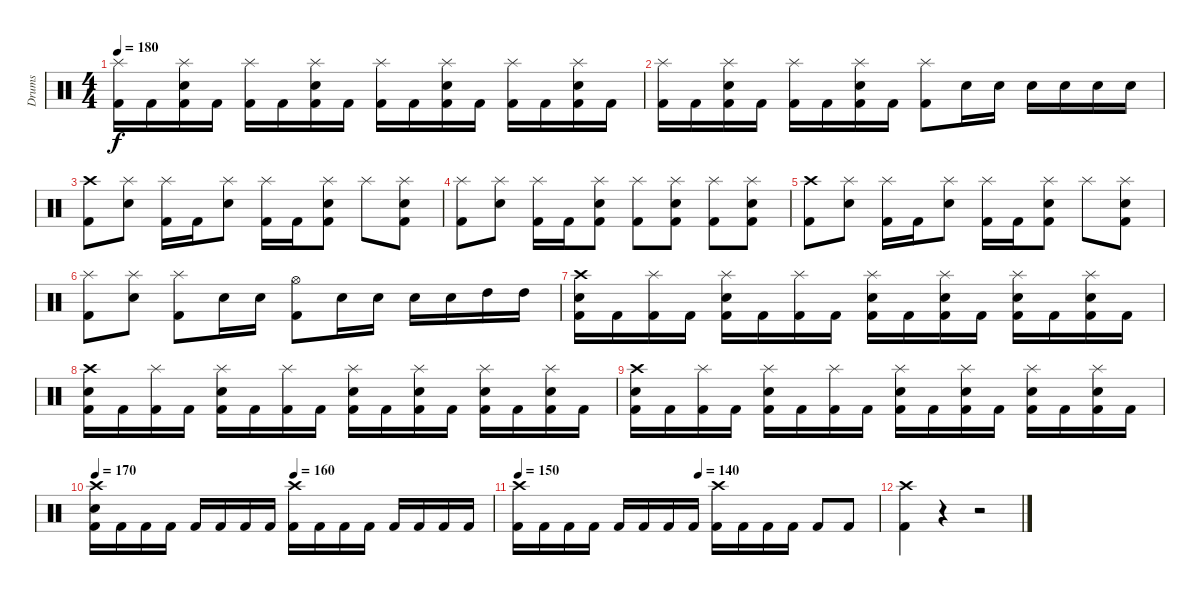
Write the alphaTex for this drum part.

\track ("Drums" "Drums") {instrument percussion}
\staff {score}
\articulation defaults
\ts (4 4)
\tempo 180
\clef neutral
\ks c
("Splash (hit)" "Kick (hit) 2").16{dy f} "Kick (hit) 2".16 ("Splash (hit)" "Snare (hit) 2" "Kick (hit) 2").16 "Kick (hit) 2".16 ("Splash (hit)" "Kick (hit) 2").16 "Kick (hit) 2".16 ("Splash (hit)" "Snare (hit) 2" "Kick (hit) 2").16 "Kick (hit) 2".16 ("Splash (hit)" "Kick (hit) 2").16 "Kick (hit) 2".16 ("Splash (hit)" "Snare (hit) 2" "Kick (hit) 2").16 "Kick (hit) 2".16 ("Splash (hit)" "Kick (hit) 2").16 "Kick (hit) 2".16 ("Splash (hit)" "Snare (hit) 2" "Kick (hit) 2").16 "Kick (hit) 2".16 |
("Splash (hit)" "Kick (hit) 2").16 "Kick (hit) 2".16 ("Splash (hit)" "Snare (hit) 2" "Kick (hit) 2").16 "Kick (hit) 2".16 ("Splash (hit)" "Kick (hit) 2").16 "Kick (hit) 2".16 ("Splash (hit)" "Snare (hit) 2" "Kick (hit) 2").16 "Kick (hit) 2".16 ("Splash (hit)" "Kick (hit) 2").8 "Snare (hit) 2".16 "Snare (hit) 2".16 "Snare (hit) 2".16 "Snare (hit) 2".16 "Snare (hit) 2".16 "Snare (hit) 2".16 |
("Crash high (hit)" "Kick (hit) 2").8 ("Splash (hit)" "Snare (hit) 2").8 ("Splash (hit)" "Kick (hit) 2").16 "Kick (hit) 2".16 ("Splash (hit)" "Snare (hit) 2").8 ("Splash (hit)" "Kick (hit) 2").16 "Kick (hit) 2".16 ("Splash (hit)" "Snare (hit) 2" "Kick (hit) 2").8 "Splash (hit)".8 ("Splash (hit)" "Snare (hit) 2" "Kick (hit) 2").8 |
("Splash (hit)" "Kick (hit) 2").8 ("Splash (hit)" "Snare (hit) 2").8 ("Splash (hit)" "Kick (hit) 2").16 "Kick (hit) 2".16 ("Splash (hit)" "Snare (hit) 2" "Kick (hit) 2").8 ("Splash (hit)" "Kick (hit) 2").8 ("Splash (hit)" "Snare (hit) 2" "Kick (hit) 2").8 ("Splash (hit)" "Kick (hit) 2").8 ("Splash (hit)" "Snare (hit) 2" "Kick (hit) 2").8 |
("Crash high (hit)" "Kick (hit) 2").8 ("Splash (hit)" "Snare (hit) 2").8 ("Splash (hit)" "Kick (hit) 2").16 "Kick (hit) 2".16 ("Splash (hit)" "Snare (hit) 2").8 ("Splash (hit)" "Kick (hit) 2").16 "Kick (hit) 2".16 ("Splash (hit)" "Snare (hit) 2" "Kick (hit) 2").8 "Splash (hit)".8 ("Splash (hit)" "Snare (hit) 2" "Kick (hit) 2").8 |
("Splash (hit)" "Kick (hit) 2").8 ("Splash (hit)" "Snare (hit) 2").8 ("Splash (hit)" "Kick (hit) 2").8 "Snare (hit) 2".16 "Snare (hit) 2".16 ("Hi-Hat (open)" "Kick (hit) 2").8 "Snare (hit) 2".16 "Snare (hit) 2".16 "Snare (hit) 2".16 "Snare (hit) 2".16 "High Tom (hit)".16 "High Tom (hit)".16 |
("Crash high (hit)" "Snare (hit) 2" "Kick (hit) 2").16 "Kick (hit) 2".16 ("Splash (hit)" "Kick (hit) 2").16 "Kick (hit) 2".16 ("Splash (hit)" "Snare (hit) 2" "Kick (hit) 2").16 "Kick (hit) 2".16 ("Splash (hit)" "Kick (hit) 2").16 "Kick (hit) 2".16 ("Splash (hit)" "Snare (hit) 2" "Kick (hit) 2").16 "Kick (hit) 2".16 ("Splash (hit)" "Snare (hit) 2" "Kick (hit) 2").16 "Kick (hit) 2".16 ("Splash (hit)" "Snare (hit) 2" "Kick (hit) 2").16 "Kick (hit) 2".16 ("Splash (hit)" "Snare (hit) 2" "Kick (hit) 2").16 "Kick (hit) 2".16 |
("Crash high (hit)" "Snare (hit) 2" "Kick (hit) 2").16 "Kick (hit) 2".16 ("Splash (hit)" "Kick (hit) 2").16 "Kick (hit) 2".16 ("Splash (hit)" "Snare (hit) 2" "Kick (hit) 2").16 "Kick (hit) 2".16 ("Splash (hit)" "Kick (hit) 2").16 "Kick (hit) 2".16 ("Splash (hit)" "Snare (hit) 2" "Kick (hit) 2").16 "Kick (hit) 2".16 ("Splash (hit)" "Snare (hit) 2" "Kick (hit) 2").16 "Kick (hit) 2".16 ("Splash (hit)" "Snare (hit) 2" "Kick (hit) 2").16 "Kick (hit) 2".16 ("Splash (hit)" "Snare (hit) 2" "Kick (hit) 2").16 "Kick (hit) 2".16 |
("Crash high (hit)" "Snare (hit) 2" "Kick (hit) 2").16 "Kick (hit) 2".16 ("Splash (hit)" "Kick (hit) 2").16 "Kick (hit) 2".16 ("Splash (hit)" "Snare (hit) 2" "Kick (hit) 2").16 "Kick (hit) 2".16 ("Splash (hit)" "Kick (hit) 2").16 "Kick (hit) 2".16 ("Splash (hit)" "Snare (hit) 2" "Kick (hit) 2").16 "Kick (hit) 2".16 ("Splash (hit)" "Snare (hit) 2" "Kick (hit) 2").16 "Kick (hit) 2".16 ("Splash (hit)" "Snare (hit) 2" "Kick (hit) 2").16 "Kick (hit) 2".16 ("Splash (hit)" "Snare (hit) 2" "Kick (hit) 2").16 "Kick (hit) 2".16 |
\tempo 170
\tempo (160 0.5)
("Crash high (hit)" "Snare (hit) 2" "Kick (hit) 2").16 "Kick (hit) 2".16 "Kick (hit) 2".16 "Kick (hit) 2".16 "Kick (hit) 2".16 "Kick (hit) 2".16 "Kick (hit) 2".16 "Kick (hit) 2".16 ("Crash high (hit)" "Kick (hit) 2").16 "Kick (hit) 2".16 "Kick (hit) 2".16 "Kick (hit) 2".16 "Kick (hit) 2".16 "Kick (hit) 2".16 "Kick (hit) 2".16 "Kick (hit) 2".16 |
\tempo 150
\tempo (140 0.5)
("Crash high (hit)" "Kick (hit) 2").16 "Kick (hit) 2".16 "Kick (hit) 2".16 "Kick (hit) 2".16 "Kick (hit) 2".16 "Kick (hit) 2".16 "Kick (hit) 2".16 "Kick (hit) 2".16 ("Crash high (hit)" "Kick (hit) 2").16 "Kick (hit) 2".16 "Kick (hit) 2".16 "Kick (hit) 2".16 "Kick (hit) 2".8 "Kick (hit) 2".8 |
("Crash high (hit)" "Kick (hit) 2").4 r.4 r.2
